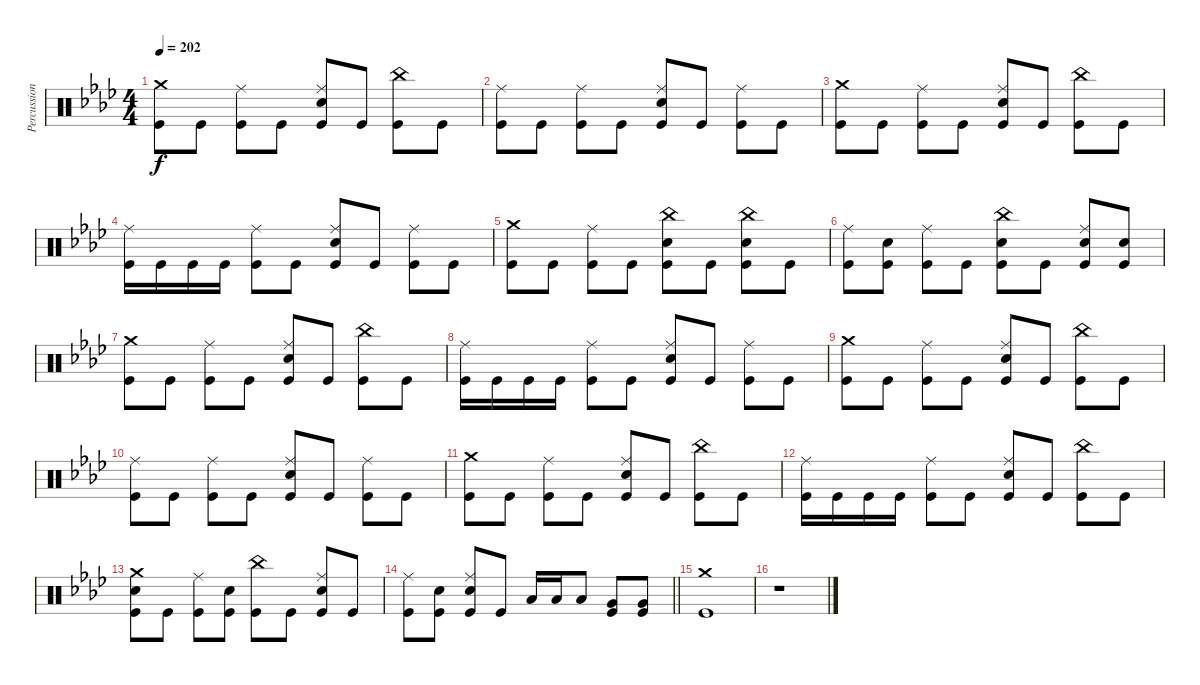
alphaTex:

\track ("Percussion" "Percussion") {instrument percussion}
\staff {score}
\articulation defaults
\ts (4 4)
\tempo 202
\clef neutral
\ks ab
("Crash medium (hit)" "Kick (hit)").8{dy f} "Kick (hit)".8 ("Ride (middle)" "Kick (hit)").8 "Kick (hit)".8 ("Ride (middle)" "Electric Snare (hit)" "Kick (hit)").8 "Kick (hit)".8 ("China (hit)" "Kick (hit)").8 "Kick (hit)".8 |
("Ride (middle)" "Kick (hit)").8 "Kick (hit)".8 ("Ride (middle)" "Kick (hit)").8 "Kick (hit)".8 ("Ride (middle)" "Electric Snare (hit)" "Kick (hit)").8 "Kick (hit)".8 ("Ride (middle)" "Kick (hit)").8 "Kick (hit)".8 |
("Crash medium (hit)" "Kick (hit)").8 "Kick (hit)".8 ("Ride (middle)" "Kick (hit)").8 "Kick (hit)".8 ("Ride (middle)" "Electric Snare (hit)" "Kick (hit)").8 "Kick (hit)".8 ("China (hit)" "Kick (hit)").8 "Kick (hit)".8 |
("Ride (middle)" "Kick (hit)").16 "Kick (hit)".16 "Kick (hit)".16 "Kick (hit)".16 ("Ride (middle)" "Kick (hit)").8 "Kick (hit)".8 ("Ride (middle)" "Electric Snare (hit)" "Kick (hit)").8 "Kick (hit)".8 ("Ride (middle)" "Kick (hit)").8 "Kick (hit)".8 |
("Crash medium (hit)" "Kick (hit)").8 "Kick (hit)".8 ("Ride (middle)" "Kick (hit)").8 "Kick (hit)".8 ("China (hit)" "Electric Snare (hit)" "Kick (hit)").8 "Kick (hit)".8 ("China (hit)" "Electric Snare (hit)" "Kick (hit)").8 "Kick (hit)".8 |
("Ride (middle)" "Kick (hit)").8 ("Electric Snare (hit)" "Kick (hit)").8 ("Ride (middle)" "Kick (hit)").8 "Kick (hit)".8 ("China (hit)" "Electric Snare (hit)" "Kick (hit)").8 "Kick (hit)".8 ("Ride (middle)" "Electric Snare (hit)" "Kick (hit)").8 ("Electric Snare (hit)" "Kick (hit)").8 |
("Crash medium (hit)" "Kick (hit)").8 "Kick (hit)".8 ("Ride (middle)" "Kick (hit)").8 "Kick (hit)".8 ("Ride (middle)" "Electric Snare (hit)" "Kick (hit)").8 "Kick (hit)".8 ("China (hit)" "Kick (hit)").8 "Kick (hit)".8 |
("Ride (middle)" "Kick (hit)").16 "Kick (hit)".16 "Kick (hit)".16 "Kick (hit)".16 ("Ride (middle)" "Kick (hit)").8 "Kick (hit)".8 ("Ride (middle)" "Electric Snare (hit)" "Kick (hit)").8 "Kick (hit)".8 ("Ride (middle)" "Kick (hit)").8 "Kick (hit)".8 |
("Crash medium (hit)" "Kick (hit)").8 "Kick (hit)".8 ("Ride (middle)" "Kick (hit)").8 "Kick (hit)".8 ("Ride (middle)" "Electric Snare (hit)" "Kick (hit)").8 "Kick (hit)".8 ("China (hit)" "Kick (hit)").8 "Kick (hit)".8 |
("Ride (middle)" "Kick (hit)").8 "Kick (hit)".8 ("Ride (middle)" "Kick (hit)").8 "Kick (hit)".8 ("Ride (middle)" "Electric Snare (hit)" "Kick (hit)").8 "Kick (hit)".8 ("Ride (middle)" "Kick (hit)").8 "Kick (hit)".8 |
("Crash medium (hit)" "Kick (hit)").8 "Kick (hit)".8 ("Ride (middle)" "Kick (hit)").8 "Kick (hit)".8 ("Ride (middle)" "Electric Snare (hit)" "Kick (hit)").8 "Kick (hit)".8 ("China (hit)" "Kick (hit)").8 "Kick (hit)".8 |
("Ride (middle)" "Kick (hit)").16 "Kick (hit)".16 "Kick (hit)".16 "Kick (hit)".16 ("Ride (middle)" "Kick (hit)").8 "Kick (hit)".8 ("Ride (middle)" "Electric Snare (hit)" "Kick (hit)").8 "Kick (hit)".8 ("China (hit)" "Kick (hit)").8 "Kick (hit)".8 |
("Crash medium (hit)" "Electric Snare (hit)" "Kick (hit)").8 "Kick (hit)".8 ("Ride (middle)" "Kick (hit)").8 ("Electric Snare (hit)" "Kick (hit)").8 ("China (hit)" "Kick (hit)").8 "Kick (hit)".8 ("Ride (middle)" "Electric Snare (hit)" "Kick (hit)").8 "Kick (hit)".8 |
\barLineRight lightlight
("Ride (middle)" "Kick (hit)").8 ("Electric Snare (hit)" "Kick (hit)").8 ("Ride (middle)" "Electric Snare (hit)" "Kick (hit)").8 "Kick (hit)".8 "Low Tom (hit)".16 "Low Tom (hit)".16 "Low Tom (hit)".8 ("Very Low Tom (hit)" "Kick (hit)").8 ("Very Low Tom (hit)" "Kick (hit)").8 |
("Crash medium (hit)" "Kick (hit)").1 |
r.1
